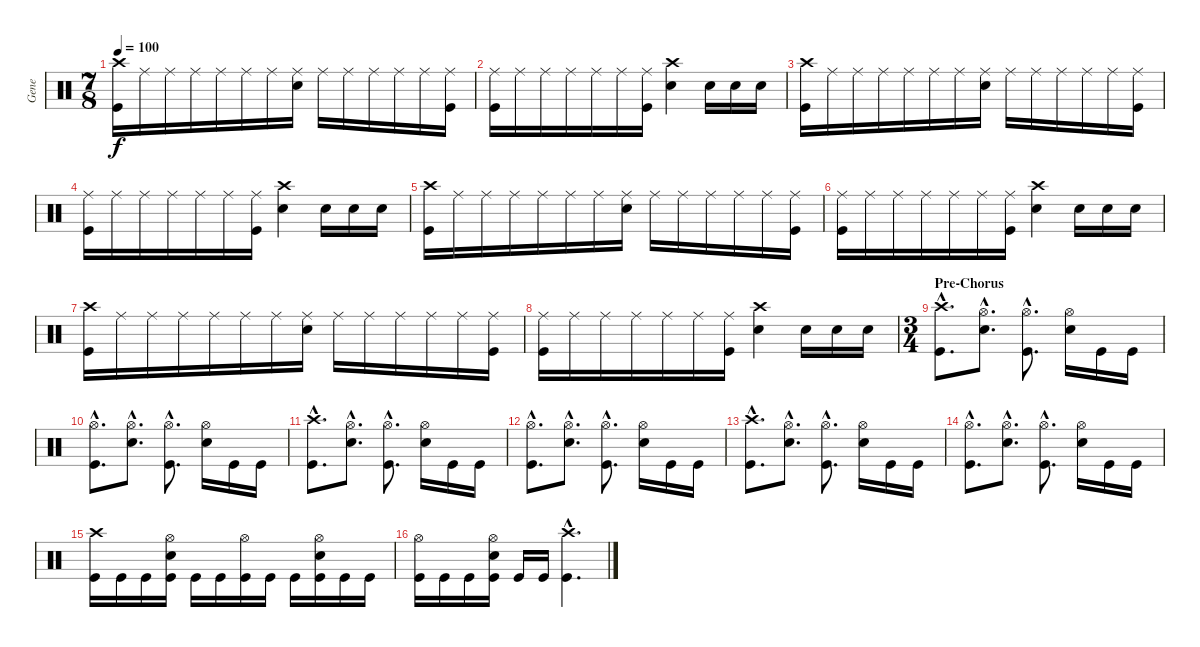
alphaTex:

\track ("Gene" "Gene") {instrument percussion}
\staff {score}
\articulation defaults
\ts (7 8)
\tempo 100
\clef neutral
\ks c
("Crash high (hit)" "Kick (hit)").16{dy f} "Ride (middle)".16 "Ride (middle)".16 "Ride (middle)".16 "Ride (middle)".16 "Ride (middle)".16 "Ride (middle)".16 ("Ride (middle)" "Snare (hit) 2").16 "Ride (middle)".16 "Ride (middle)".16 "Ride (middle)".16 "Ride (middle)".16 "Ride (middle)".16 ("Ride (middle)" "Kick (hit)").16 |
("Ride (middle)" "Kick (hit)").16 "Ride (middle)".16 "Ride (middle)".16 "Ride (middle)".16 "Ride (middle)".16 "Ride (middle)".16 ("Ride (middle)" "Kick (hit)").16 ("Crash high (hit)" "Snare (hit) 2").4 "Snare (hit) 2".16 "Snare (hit) 2".16 "Snare (hit) 2".16 |
("Crash high (hit)" "Kick (hit)").16 "Ride (middle)".16 "Ride (middle)".16 "Ride (middle)".16 "Ride (middle)".16 "Ride (middle)".16 "Ride (middle)".16 ("Ride (middle)" "Snare (hit) 2").16 "Ride (middle)".16 "Ride (middle)".16 "Ride (middle)".16 "Ride (middle)".16 "Ride (middle)".16 ("Ride (middle)" "Kick (hit)").16 |
("Ride (middle)" "Kick (hit)").16 "Ride (middle)".16 "Ride (middle)".16 "Ride (middle)".16 "Ride (middle)".16 "Ride (middle)".16 ("Ride (middle)" "Kick (hit)").16 ("Crash high (hit)" "Snare (hit) 2").4 "Snare (hit) 2".16 "Snare (hit) 2".16 "Snare (hit) 2".16 |
("Crash high (hit)" "Kick (hit)").16 "Ride (middle)".16 "Ride (middle)".16 "Ride (middle)".16 "Ride (middle)".16 "Ride (middle)".16 "Ride (middle)".16 ("Ride (middle)" "Snare (hit) 2").16 "Ride (middle)".16 "Ride (middle)".16 "Ride (middle)".16 "Ride (middle)".16 "Ride (middle)".16 ("Ride (middle)" "Kick (hit)").16 |
("Ride (middle)" "Kick (hit)").16 "Ride (middle)".16 "Ride (middle)".16 "Ride (middle)".16 "Ride (middle)".16 "Ride (middle)".16 ("Ride (middle)" "Kick (hit)").16 ("Crash high (hit)" "Snare (hit) 2").4 "Snare (hit) 2".16 "Snare (hit) 2".16 "Snare (hit) 2".16 |
("Crash high (hit)" "Kick (hit)").16 "Ride (middle)".16 "Ride (middle)".16 "Ride (middle)".16 "Ride (middle)".16 "Ride (middle)".16 "Ride (middle)".16 ("Ride (middle)" "Snare (hit) 2").16 "Ride (middle)".16 "Ride (middle)".16 "Ride (middle)".16 "Ride (middle)".16 "Ride (middle)".16 ("Ride (middle)" "Kick (hit)").16 |
("Ride (middle)" "Kick (hit)").16 "Ride (middle)".16 "Ride (middle)".16 "Ride (middle)".16 "Ride (middle)".16 "Ride (middle)".16 ("Ride (middle)" "Kick (hit)").16 ("Crash high (hit)" "Snare (hit) 2").4 "Snare (hit) 2".16 "Snare (hit) 2".16 "Snare (hit) 2".16 |
\ts (3 4)
\section ("" "Pre-Chorus")
("Crash high (hit)"{hac} "Kick (hit)"{hac}).8{d} ("Hi-Hat (open)"{hac} "Snare (hit) 2"{hac}).8{d} ("Hi-Hat (open)"{hac} "Kick (hit)"{hac}).8{d} ("Hi-Hat (open)" "Snare (hit) 2").16 "Kick (hit)".16 "Kick (hit)".16 |
("Hi-Hat (open)"{hac} "Kick (hit)"{hac}).8{d} ("Hi-Hat (open)"{hac} "Snare (hit) 2"{hac}).8{d} ("Hi-Hat (open)"{hac} "Kick (hit)"{hac}).8{d} ("Hi-Hat (open)" "Snare (hit) 2").16 "Kick (hit)".16 "Kick (hit)".16 |
("Crash high (hit)"{hac} "Kick (hit)"{hac}).8{d} ("Hi-Hat (open)"{hac} "Snare (hit) 2"{hac}).8{d} ("Hi-Hat (open)"{hac} "Kick (hit)"{hac}).8{d} ("Hi-Hat (open)" "Snare (hit) 2").16 "Kick (hit)".16 "Kick (hit)".16 |
("Hi-Hat (open)"{hac} "Kick (hit)"{hac}).8{d} ("Hi-Hat (open)"{hac} "Snare (hit) 2"{hac}).8{d} ("Hi-Hat (open)"{hac} "Kick (hit)"{hac}).8{d} ("Hi-Hat (open)" "Snare (hit) 2").16 "Kick (hit)".16 "Kick (hit)".16 |
("Crash high (hit)"{hac} "Kick (hit)"{hac}).8{d} ("Hi-Hat (open)"{hac} "Snare (hit) 2"{hac}).8{d} ("Hi-Hat (open)"{hac} "Kick (hit)"{hac}).8{d} ("Hi-Hat (open)" "Snare (hit) 2").16 "Kick (hit)".16 "Kick (hit)".16 |
("Hi-Hat (open)"{hac} "Kick (hit)"{hac}).8{d} ("Hi-Hat (open)"{hac} "Snare (hit) 2"{hac}).8{d} ("Hi-Hat (open)"{hac} "Kick (hit)"{hac}).8{d} ("Hi-Hat (open)" "Snare (hit) 2").16 "Kick (hit)".16 "Kick (hit)".16 |
("Crash high (hit)" "Kick (hit)").16 "Kick (hit)".16 "Kick (hit)".16 ("Hi-Hat (open)" "Snare (hit) 2" "Kick (hit)").16 "Kick (hit)".16 "Kick (hit)".16 ("Hi-Hat (open)" "Kick (hit)").16 "Kick (hit)".16 "Kick (hit)".16 ("Hi-Hat (open)" "Snare (hit) 2" "Kick (hit)").16 "Kick (hit)".16 "Kick (hit)".16 |
("Hi-Hat (open)" "Kick (hit)").16 "Kick (hit)".16 "Kick (hit)".16 ("Hi-Hat (open)" "Snare (hit) 2" "Kick (hit)").16 "Kick (hit)".16 "Kick (hit)".16 ("Crash high (hit)"{hac} "Kick (hit)"{hac}).4{d}
